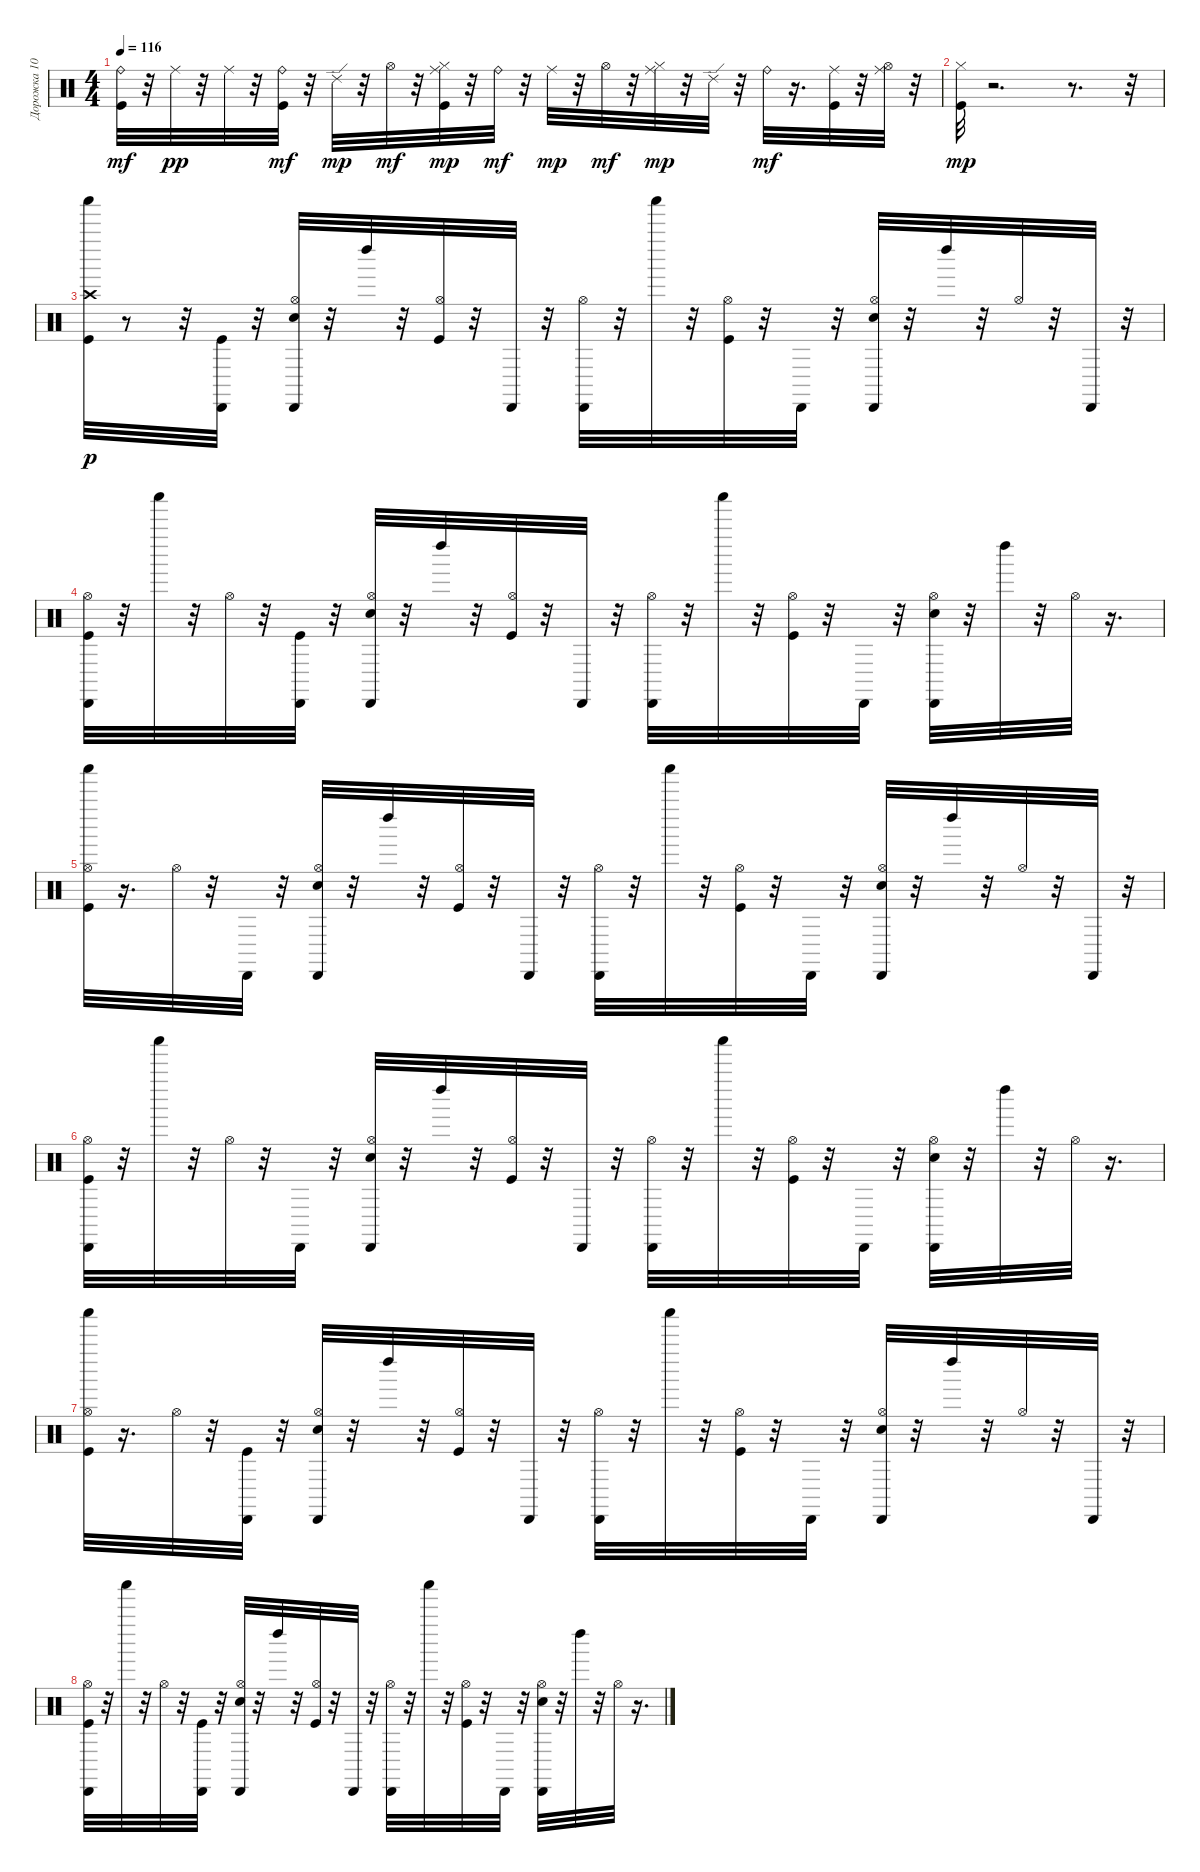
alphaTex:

\track ("Дорожка 10" "Дорожка 10") {instrument percussion}
\staff {score}
\articulation defaults
\ts (4 4)
\tempo 116
\clef neutral
\ks c
("Kick (hit)" "Ride (bell)").32{dy mf} r.32 "Ride (middle)".32{dy pp} r.32 "Ride (middle)".32 r.32 ("Kick (hit)" "Ride (bell)").32{dy mf} r.32 "Ride (edge) 2".32{dy mp} r.32 "Hi-Hat (open)".32{dy mf} r.32 ("Kick (hit)" "Ride (middle)" "Hi-Hat (closed)").32{dy mp} r.32 "Ride (bell)".32{dy mf} r.32 "Ride (middle)".32{dy mp} r.32 "Hi-Hat (open)".32{dy mf} r.32 ("Ride (middle)" "Hi-Hat (closed)").32{dy mp} r.32 "Ride (edge) 2".32 r.32 "Ride (bell)".32{dy mf} r.16{d} ("Ride (middle)" "Kick (hit)").32 r.32 ("Ride (middle)" "Hi-Hat (open)").32 r.32 |
("Hi-Hat (closed)" "Kick (hit)").32{dy mp} r.2{d} r.8{d} r.32 |
("Kick (hit)" "Crash high (hit)" "Shaker (hit)").32{dy p} r.8 r.32 ("Kick (hit)" "Cabasa (hit)").32 r.32 ("Electric Snare (hit)" "Hi-Hat (open)" "Cabasa (hit)").32 r.32 "Left Maraca (hit)".32 r.32 ("Kick (hit)" "Hi-Hat (open)").32 r.32 "Cabasa (hit)".32 r.32 ("Hi-Hat (open)" "Cabasa (hit)").32 r.32 "Shaker (hit)".32 r.32 ("Kick (hit)" "Hi-Hat (open)").32 r.32 "Cabasa (hit)".32 r.32 ("Electric Snare (hit)" "Hi-Hat (open)" "Cabasa (hit)").32 r.32 "Left Maraca (hit)".32 r.32 "Hi-Hat (open)".32 r.32 "Cabasa (hit)".32 r.32 |
("Kick (hit)" "Hi-Hat (open)" "Cabasa (hit)").32 r.32 "Shaker (hit)".32 r.32 "Hi-Hat (open)".32 r.32 ("Kick (hit)" "Cabasa (hit)").32 r.32 ("Electric Snare (hit)" "Hi-Hat (open)" "Cabasa (hit)").32 r.32 "Left Maraca (hit)".32 r.32 ("Kick (hit)" "Hi-Hat (open)").32 r.32 "Cabasa (hit)".32 r.32 ("Hi-Hat (open)" "Cabasa (hit)").32 r.32 "Shaker (hit)".32 r.32 ("Hi-Hat (open)" "Kick (hit)").32 r.32 "Cabasa (hit)".32 r.32 ("Electric Snare (hit)" "Hi-Hat (open)" "Cabasa (hit)").32 r.32 "Left Maraca (hit)".32 r.32 "Hi-Hat (open)".32 r.16{d} |
("Kick (hit)" "Hi-Hat (open)" "Shaker (hit)").32 r.16{d} "Hi-Hat (open)".32 r.32 "Cabasa (hit)".32 r.32 ("Electric Snare (hit)" "Hi-Hat (open)" "Cabasa (hit)").32 r.32 "Left Maraca (hit)".32 r.32 ("Kick (hit)" "Hi-Hat (open)").32 r.32 "Cabasa (hit)".32 r.32 ("Hi-Hat (open)" "Cabasa (hit)").32 r.32 "Shaker (hit)".32 r.32 ("Kick (hit)" "Hi-Hat (open)").32 r.32 "Cabasa (hit)".32 r.32 ("Electric Snare (hit)" "Hi-Hat (open)" "Cabasa (hit)").32 r.32 "Left Maraca (hit)".32 r.32 "Hi-Hat (open)".32 r.32 "Cabasa (hit)".32 r.32 |
("Kick (hit)" "Hi-Hat (open)" "Cabasa (hit)").32 r.32 "Shaker (hit)".32 r.32 "Hi-Hat (open)".32 r.32 "Cabasa (hit)".32 r.32 ("Electric Snare (hit)" "Hi-Hat (open)" "Cabasa (hit)").32 r.32 "Left Maraca (hit)".32 r.32 ("Kick (hit)" "Hi-Hat (open)").32 r.32 "Cabasa (hit)".32 r.32 ("Hi-Hat (open)" "Cabasa (hit)").32 r.32 "Shaker (hit)".32 r.32 ("Hi-Hat (open)" "Kick (hit)").32 r.32 "Cabasa (hit)".32 r.32 ("Electric Snare (hit)" "Hi-Hat (open)" "Cabasa (hit)").32 r.32 "Left Maraca (hit)".32 r.32 "Hi-Hat (open)".32 r.16{d} |
("Kick (hit)" "Hi-Hat (open)" "Shaker (hit)").32 r.16{d} "Hi-Hat (open)".32 r.32 ("Kick (hit)" "Cabasa (hit)").32 r.32 ("Electric Snare (hit)" "Hi-Hat (open)" "Cabasa (hit)").32 r.32 "Left Maraca (hit)".32 r.32 ("Kick (hit)" "Hi-Hat (open)").32 r.32 "Cabasa (hit)".32 r.32 ("Hi-Hat (open)" "Cabasa (hit)").32 r.32 "Shaker (hit)".32 r.32 ("Kick (hit)" "Hi-Hat (open)").32 r.32 "Cabasa (hit)".32 r.32 ("Electric Snare (hit)" "Hi-Hat (open)" "Cabasa (hit)").32 r.32 "Left Maraca (hit)".32 r.32 "Hi-Hat (open)".32 r.32 "Cabasa (hit)".32 r.32 |
("Kick (hit)" "Hi-Hat (open)" "Cabasa (hit)").32 r.32 "Shaker (hit)".32 r.32 "Hi-Hat (open)".32 r.32 ("Kick (hit)" "Cabasa (hit)").32 r.32 ("Electric Snare (hit)" "Hi-Hat (open)" "Cabasa (hit)").32 r.32 "Left Maraca (hit)".32 r.32 ("Kick (hit)" "Hi-Hat (open)").32 r.32 "Cabasa (hit)".32 r.32 ("Hi-Hat (open)" "Cabasa (hit)").32 r.32 "Shaker (hit)".32 r.32 ("Hi-Hat (open)" "Kick (hit)").32 r.32 "Cabasa (hit)".32 r.32 ("Electric Snare (hit)" "Hi-Hat (open)" "Cabasa (hit)").32 r.32 "Left Maraca (hit)".32 r.32 "Hi-Hat (open)".32 r.16{d}
